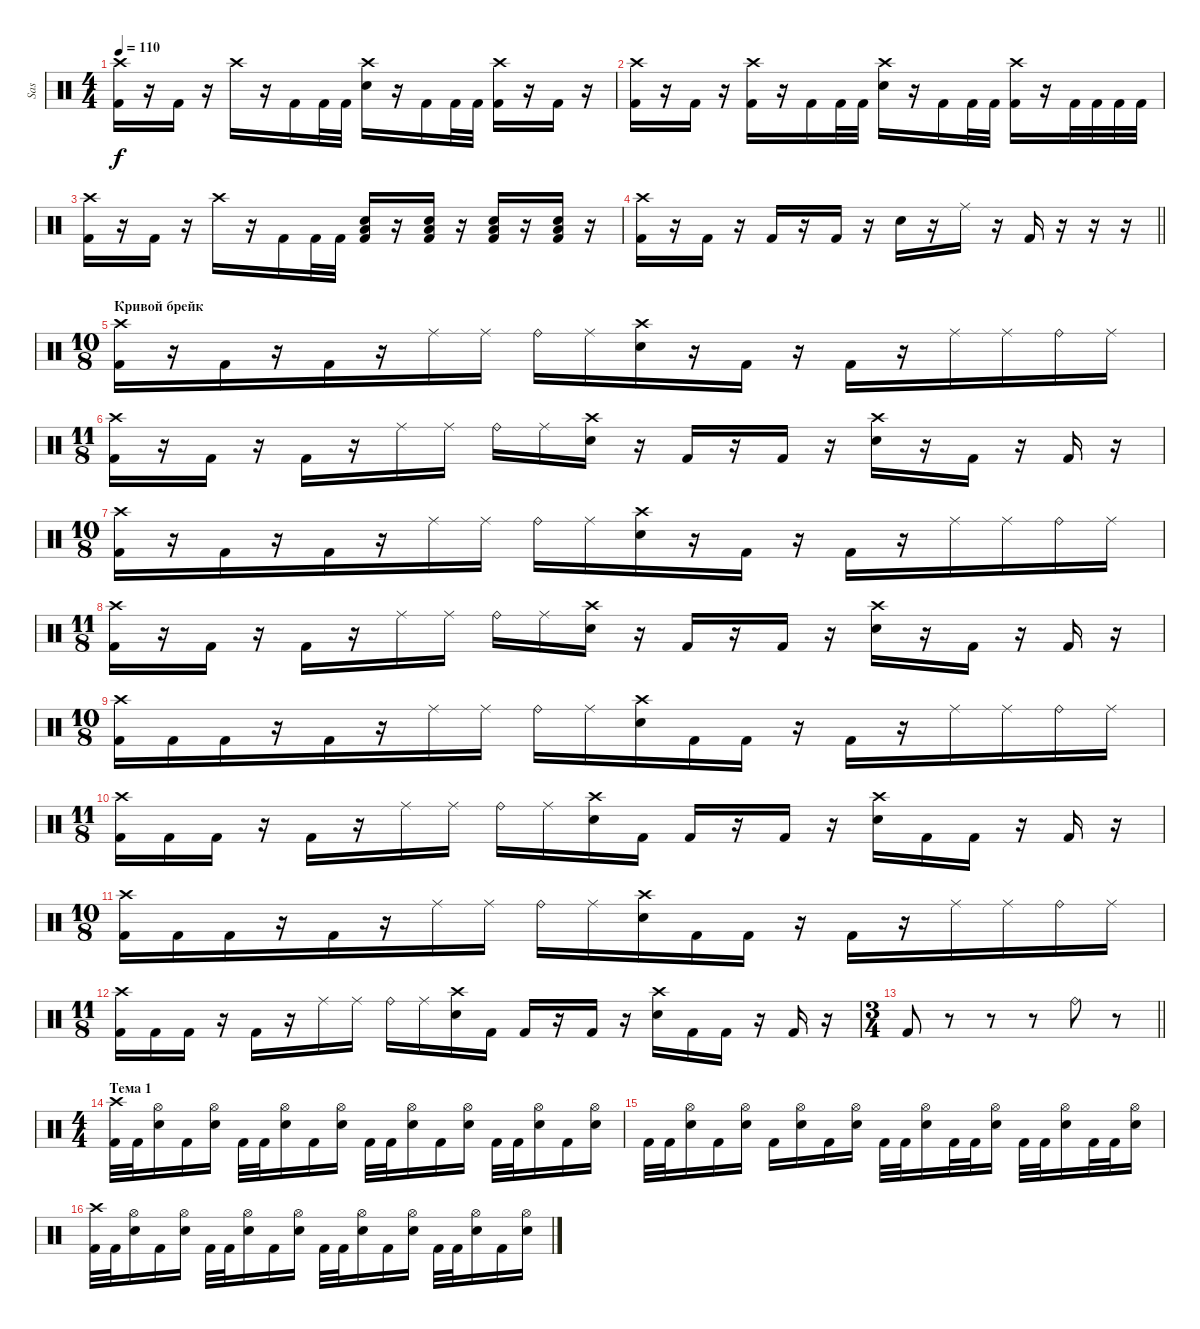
\track ("Sas" "Sas") {instrument percussion}
\staff {score}
\articulation defaults
\ts (4 4)
\tempo 110
\clef neutral
\ks c
("Crash high (hit)" "Kick (hit) 2").16{dy f} r.16 "Kick (hit) 2".16 r.16 "Crash high (hit)".16 r.16 "Kick (hit) 2".16 "Kick (hit) 2".32 "Kick (hit) 2".32 ("Crash high (hit)" "Snare (hit) 2").16 r.16 "Kick (hit) 2".16 "Kick (hit) 2".32 "Kick (hit) 2".32 ("Crash high (hit)" "Kick (hit) 2").16 r.16 "Kick (hit) 2".16 r.16 |
("Crash high (hit)" "Kick (hit) 2").16 r.16 "Kick (hit) 2".16 r.16 ("Crash high (hit)" "Kick (hit) 2").16 r.16 "Kick (hit) 2".16 "Kick (hit) 2".32 "Kick (hit) 2".32 ("Crash high (hit)" "Snare (hit) 2").16 r.16 "Kick (hit) 2".16 "Kick (hit) 2".32 "Kick (hit) 2".32 ("Crash high (hit)" "Kick (hit) 2").16 r.16 "Kick (hit) 2".32 "Kick (hit) 2".32 "Kick (hit) 2".32 "Kick (hit) 2".32 |
("Crash high (hit)" "Kick (hit) 2").16 r.16 "Kick (hit) 2".16 r.16 "Crash high (hit)".16 r.16 "Kick (hit) 2".16 "Kick (hit) 2".32 "Kick (hit) 2".32 ("Low Tom (hit)" "Snare (hit) 2" "Kick (hit) 2").16 r.16 ("Low Tom (hit)" "Snare (hit) 2" "Kick (hit) 2").16 r.16 ("Low Tom (hit)" "Snare (hit) 2" "Kick (hit) 2").16 r.16 ("Low Tom (hit)" "Snare (hit) 2" "Kick (hit) 2").16 r.16 |
\barLineRight lightlight
("Crash high (hit)" "Kick (hit) 2").16 r.16 "Kick (hit) 2".16 r.16 "Kick (hit) 2".16 r.16 "Kick (hit) 2".16 r.16 "Snare (hit) 2".16 r.16 "Ride (middle)".16 r.16 "Kick (hit) 2".16 r.16 r.16 r.16 |
\ts (10 8)
\section ("" "Кривой брейк")
("Crash high (hit)" "Kick (hit) 2").16 r.16 "Kick (hit) 2".16 r.16 "Kick (hit) 2".16 r.16 "Ride (middle)".16 "Ride (middle)".16 "Ride (bell)".16 "Ride (middle)".16 ("Crash high (hit)" "Snare (hit) 2").16 r.16 "Kick (hit) 2".16 r.16 "Kick (hit) 2".16 r.16 "Ride (middle)".16 "Ride (middle)".16 "Ride (bell)".16 "Ride (middle)".16 |
\ts (11 8)
("Crash high (hit)" "Kick (hit) 2").16 r.16 "Kick (hit) 2".16 r.16 "Kick (hit) 2".16 r.16 "Ride (middle)".16 "Ride (middle)".16 "Ride (bell)".16 "Ride (middle)".16 ("Crash high (hit)" "Snare (hit) 2").16 r.16 "Kick (hit) 2".16 r.16 "Kick (hit) 2".16 r.16 ("Crash high (hit)" "Snare (hit) 2").16 r.16 "Kick (hit) 2".16 r.16 "Kick (hit) 2".16 r.16 |
\ts (10 8)
("Crash high (hit)" "Kick (hit) 2").16 r.16 "Kick (hit) 2".16 r.16 "Kick (hit) 2".16 r.16 "Ride (middle)".16 "Ride (middle)".16 "Ride (bell)".16 "Ride (middle)".16 ("Crash high (hit)" "Snare (hit) 2").16 r.16 "Kick (hit) 2".16 r.16 "Kick (hit) 2".16 r.16 "Ride (middle)".16 "Ride (middle)".16 "Ride (bell)".16 "Ride (middle)".16 |
\ts (11 8)
("Crash high (hit)" "Kick (hit) 2").16 r.16 "Kick (hit) 2".16 r.16 "Kick (hit) 2".16 r.16 "Ride (middle)".16 "Ride (middle)".16 "Ride (bell)".16 "Ride (middle)".16 ("Crash high (hit)" "Snare (hit) 2").16 r.16 "Kick (hit) 2".16 r.16 "Kick (hit) 2".16 r.16 ("Crash high (hit)" "Snare (hit) 2").16 r.16 "Kick (hit) 2".16 r.16 "Kick (hit) 2".16 r.16 |
\ts (10 8)
("Crash high (hit)" "Kick (hit) 2").16 "Kick (hit) 2".16 "Kick (hit) 2".16 r.16 "Kick (hit) 2".16 r.16 "Ride (middle)".16 "Ride (middle)".16 "Ride (bell)".16 "Ride (middle)".16 ("Crash high (hit)" "Snare (hit) 2").16 "Kick (hit) 2".16 "Kick (hit) 2".16 r.16 "Kick (hit) 2".16 r.16 "Ride (middle)".16 "Ride (middle)".16 "Ride (bell)".16 "Ride (middle)".16 |
\ts (11 8)
("Crash high (hit)" "Kick (hit) 2").16 "Kick (hit) 2".16 "Kick (hit) 2".16 r.16 "Kick (hit) 2".16 r.16 "Ride (middle)".16 "Ride (middle)".16 "Ride (bell)".16 "Ride (middle)".16 ("Crash high (hit)" "Snare (hit) 2").16 "Kick (hit) 2".16 "Kick (hit) 2".16 r.16 "Kick (hit) 2".16 r.16 ("Crash high (hit)" "Snare (hit) 2").16 "Kick (hit) 2".16 "Kick (hit) 2".16 r.16 "Kick (hit) 2".16 r.16 |
\ts (10 8)
("Crash high (hit)" "Kick (hit) 2").16 "Kick (hit) 2".16 "Kick (hit) 2".16 r.16 "Kick (hit) 2".16 r.16 "Ride (middle)".16 "Ride (middle)".16 "Ride (bell)".16 "Ride (middle)".16 ("Crash high (hit)" "Snare (hit) 2").16 "Kick (hit) 2".16 "Kick (hit) 2".16 r.16 "Kick (hit) 2".16 r.16 "Ride (middle)".16 "Ride (middle)".16 "Ride (bell)".16 "Ride (middle)".16 |
\ts (11 8)
("Crash high (hit)" "Kick (hit) 2").16 "Kick (hit) 2".16 "Kick (hit) 2".16 r.16 "Kick (hit) 2".16 r.16 "Ride (middle)".16 "Ride (middle)".16 "Ride (bell)".16 "Ride (middle)".16 ("Crash high (hit)" "Snare (hit) 2").16 "Kick (hit) 2".16 "Kick (hit) 2".16 r.16 "Kick (hit) 2".16 r.16 ("Crash high (hit)" "Snare (hit) 2").16 "Kick (hit) 2".16 "Kick (hit) 2".16 r.16 "Kick (hit) 2".16 r.16 |
\ts (3 4)
\barLineRight lightlight "Kick (hit) 2".8
r.8 r.8 r.8 "Ride (bell)".8 r.8 |
\ts (4 4)
\section ("" "Тема 1")
("Crash high (hit)" "Kick (hit) 2").32 "Kick (hit) 2".32 ("Hi-Hat (open)" "Snare (hit) 2").16 "Kick (hit) 2".16 ("Hi-Hat (open)" "Snare (hit) 2").16 "Kick (hit) 2".32 "Kick (hit) 2".32 ("Hi-Hat (open)" "Snare (hit) 2").16 "Kick (hit) 2".16 ("Hi-Hat (open)" "Snare (hit) 2").16 "Kick (hit) 2".32 "Kick (hit) 2".32 ("Hi-Hat (open)" "Snare (hit) 2").16 "Kick (hit) 2".16 ("Hi-Hat (open)" "Snare (hit) 2").16 "Kick (hit) 2".32 "Kick (hit) 2".32 ("Hi-Hat (open)" "Snare (hit) 2").16 "Kick (hit) 2".16 ("Hi-Hat (open)" "Snare (hit) 2").16 |
"Kick (hit) 2".32 "Kick (hit) 2".32 ("Hi-Hat (open)" "Snare (hit) 2").16 "Kick (hit) 2".16 ("Hi-Hat (open)" "Snare (hit) 2").16 "Kick (hit) 2".16 ("Hi-Hat (open)" "Snare (hit) 2").16 "Kick (hit) 2".16 ("Hi-Hat (open)" "Snare (hit) 2").16 "Kick (hit) 2".32 "Kick (hit) 2".32 ("Hi-Hat (open)" "Snare (hit) 2").16 "Kick (hit) 2".32 "Kick (hit) 2".32 ("Hi-Hat (open)" "Snare (hit) 2").16 "Kick (hit) 2".32 "Kick (hit) 2".32 ("Hi-Hat (open)" "Snare (hit) 2").16 "Kick (hit) 2".32 "Kick (hit) 2".32 ("Hi-Hat (open)" "Snare (hit) 2").16 |
("Crash high (hit)" "Kick (hit) 2").32 "Kick (hit) 2".32 ("Hi-Hat (open)" "Snare (hit) 2").16 "Kick (hit) 2".16 ("Hi-Hat (open)" "Snare (hit) 2").16 "Kick (hit) 2".32 "Kick (hit) 2".32 ("Hi-Hat (open)" "Snare (hit) 2").16 "Kick (hit) 2".16 ("Hi-Hat (open)" "Snare (hit) 2").16 "Kick (hit) 2".32 "Kick (hit) 2".32 ("Hi-Hat (open)" "Snare (hit) 2").16 "Kick (hit) 2".16 ("Hi-Hat (open)" "Snare (hit) 2").16 "Kick (hit) 2".32 "Kick (hit) 2".32 ("Hi-Hat (open)" "Snare (hit) 2").16 "Kick (hit) 2".16 ("Hi-Hat (open)" "Snare (hit) 2").16
